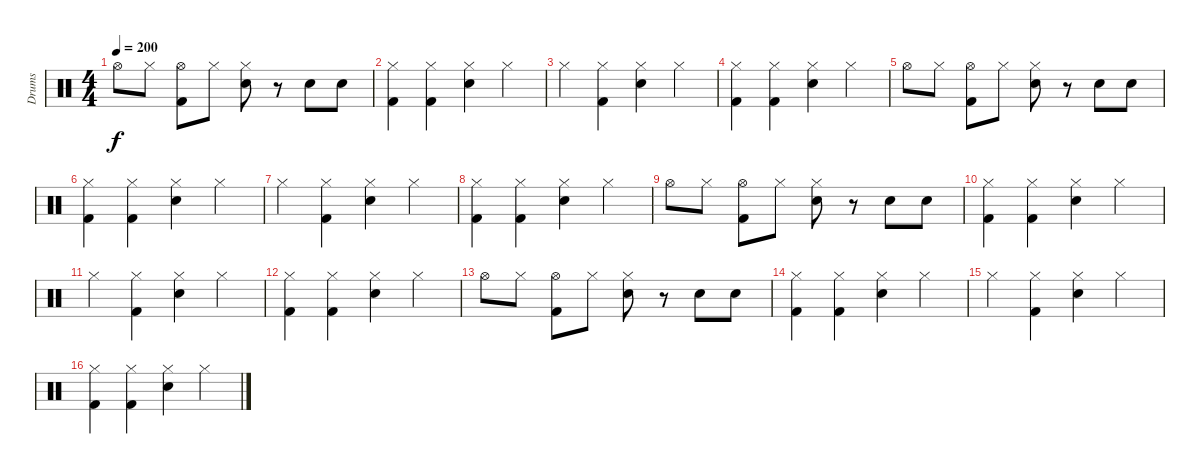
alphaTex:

\track ("Drums" "Drums") {instrument percussion}
\staff {score}
\articulation defaults
\ts (4 4)
\tempo 200
\clef neutral
\ks c "Hi-Hat (open)".8{dy f} "Hi-Hat (closed)".8
("Hi-Hat (open)" "Kick (hit) 2").8 "Hi-Hat (closed)".8 ("Hi-Hat (closed)" "Electric Snare (hit)").8 r.8 "Electric Snare (hit)".8 "Electric Snare (hit)".8 |
("Hi-Hat (closed)" "Kick (hit) 2").4 ("Hi-Hat (closed)" "Kick (hit) 2").4 ("Hi-Hat (closed)" "Electric Snare (hit)").4 "Hi-Hat (closed)".4 |
"Hi-Hat (closed)".4 ("Hi-Hat (closed)" "Kick (hit) 2").4 ("Hi-Hat (closed)" "Electric Snare (hit)").4 "Hi-Hat (closed)".4 |
("Hi-Hat (closed)" "Kick (hit) 2").4 ("Hi-Hat (closed)" "Kick (hit) 2").4 ("Hi-Hat (closed)" "Electric Snare (hit)").4 "Hi-Hat (closed)".4 |
"Hi-Hat (open)".8 "Hi-Hat (closed)".8 ("Hi-Hat (open)" "Kick (hit) 2").8 "Hi-Hat (closed)".8 ("Hi-Hat (closed)" "Electric Snare (hit)").8 r.8 "Electric Snare (hit)".8 "Electric Snare (hit)".8 |
("Hi-Hat (closed)" "Kick (hit) 2").4 ("Hi-Hat (closed)" "Kick (hit) 2").4 ("Hi-Hat (closed)" "Electric Snare (hit)").4 "Hi-Hat (closed)".4 |
"Hi-Hat (closed)".4 ("Hi-Hat (closed)" "Kick (hit) 2").4 ("Hi-Hat (closed)" "Electric Snare (hit)").4 "Hi-Hat (closed)".4 |
("Hi-Hat (closed)" "Kick (hit) 2").4 ("Hi-Hat (closed)" "Kick (hit) 2").4 ("Hi-Hat (closed)" "Electric Snare (hit)").4 "Hi-Hat (closed)".4 |
"Hi-Hat (open)".8 "Hi-Hat (closed)".8 ("Hi-Hat (open)" "Kick (hit) 2").8 "Hi-Hat (closed)".8 ("Hi-Hat (closed)" "Electric Snare (hit)").8 r.8 "Electric Snare (hit)".8 "Electric Snare (hit)".8 |
("Hi-Hat (closed)" "Kick (hit) 2").4 ("Hi-Hat (closed)" "Kick (hit) 2").4 ("Hi-Hat (closed)" "Electric Snare (hit)").4 "Hi-Hat (closed)".4 |
"Hi-Hat (closed)".4 ("Hi-Hat (closed)" "Kick (hit) 2").4 ("Hi-Hat (closed)" "Electric Snare (hit)").4 "Hi-Hat (closed)".4 |
("Hi-Hat (closed)" "Kick (hit) 2").4 ("Hi-Hat (closed)" "Kick (hit) 2").4 ("Hi-Hat (closed)" "Electric Snare (hit)").4 "Hi-Hat (closed)".4 |
"Hi-Hat (open)".8 "Hi-Hat (closed)".8 ("Hi-Hat (open)" "Kick (hit) 2").8 "Hi-Hat (closed)".8 ("Hi-Hat (closed)" "Electric Snare (hit)").8 r.8 "Electric Snare (hit)".8 "Electric Snare (hit)".8 |
("Hi-Hat (closed)" "Kick (hit) 2").4 ("Hi-Hat (closed)" "Kick (hit) 2").4 ("Hi-Hat (closed)" "Electric Snare (hit)").4 "Hi-Hat (closed)".4 |
"Hi-Hat (closed)".4 ("Hi-Hat (closed)" "Kick (hit) 2").4 ("Hi-Hat (closed)" "Electric Snare (hit)").4 "Hi-Hat (closed)".4 |
("Hi-Hat (closed)" "Kick (hit) 2").4 ("Hi-Hat (closed)" "Kick (hit) 2").4 ("Hi-Hat (closed)" "Electric Snare (hit)").4 "Hi-Hat (closed)".4
